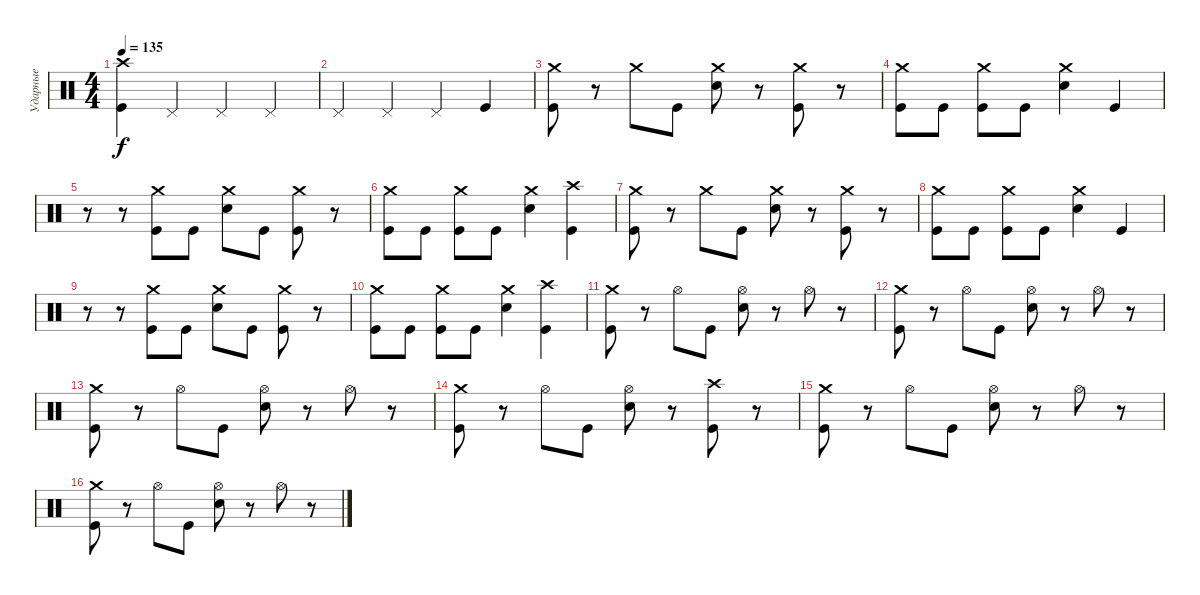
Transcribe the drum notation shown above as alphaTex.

\track ("Ударные" "Ударные") {instrument percussion}
\staff {score}
\articulation defaults
\ts (4 4)
\tempo 135
\clef neutral
\ks c
("Crash high (hit)" "Kick (hit)").4{dy f} "Pedal Hi-Hat (hit)".4 "Pedal Hi-Hat (hit)".4 "Pedal Hi-Hat (hit)".4 |
"Pedal Hi-Hat (hit)".4 "Pedal Hi-Hat (hit)".4 "Pedal Hi-Hat (hit)".4 "Kick (hit)".4 |
("Crash medium (hit)" "Kick (hit)").8 r.8 "Crash medium (hit)".8 "Kick (hit)".8 ("Crash medium (hit)" "Electric Snare (hit)").8 r.8 ("Crash medium (hit)" "Kick (hit)").8 r.8 |
("Crash medium (hit)" "Kick (hit)").8 "Kick (hit)".8 ("Crash medium (hit)" "Kick (hit)").8 "Kick (hit)".8 ("Crash medium (hit)" "Electric Snare (hit)").4 "Kick (hit)".4 |
r.8 r.8 ("Crash medium (hit)" "Kick (hit)").8 "Kick (hit)".8 ("Crash medium (hit)" "Electric Snare (hit)").8 "Kick (hit)".8 ("Crash medium (hit)" "Kick (hit)").8 r.8 |
("Crash medium (hit)" "Kick (hit)").8 "Kick (hit)".8 ("Crash medium (hit)" "Kick (hit)").8 "Kick (hit)".8 ("Crash medium (hit)" "Electric Snare (hit)").4 ("Crash high (hit)" "Kick (hit)").4 |
("Crash medium (hit)" "Kick (hit)").8 r.8 "Crash medium (hit)".8 "Kick (hit)".8 ("Crash medium (hit)" "Electric Snare (hit)").8 r.8 ("Crash medium (hit)" "Kick (hit)").8 r.8 |
("Crash medium (hit)" "Kick (hit)").8 "Kick (hit)".8 ("Crash medium (hit)" "Kick (hit)").8 "Kick (hit)".8 ("Crash medium (hit)" "Electric Snare (hit)").4 "Kick (hit)".4 |
r.8 r.8 ("Crash medium (hit)" "Kick (hit)").8 "Kick (hit)".8 ("Crash medium (hit)" "Electric Snare (hit)").8 "Kick (hit)".8 ("Crash medium (hit)" "Kick (hit)").8 r.8 |
("Crash medium (hit)" "Kick (hit)").8 "Kick (hit)".8 ("Crash medium (hit)" "Kick (hit)").8 "Kick (hit)".8 ("Crash medium (hit)" "Electric Snare (hit)").4 ("Crash high (hit)" "Kick (hit)").4 |
("Crash medium (hit)" "Kick (hit)").8 r.8 "Hi-Hat (open)".8 "Kick (hit)".8 ("Hi-Hat (open)" "Electric Snare (hit)").8 r.8 "Hi-Hat (open)".8 r.8 |
("Crash medium (hit)" "Kick (hit)").8 r.8 "Hi-Hat (open)".8 "Kick (hit)".8 ("Hi-Hat (open)" "Electric Snare (hit)").8 r.8 "Hi-Hat (open)".8 r.8 |
("Crash medium (hit)" "Kick (hit)").8 r.8 "Hi-Hat (open)".8 "Kick (hit)".8 ("Hi-Hat (open)" "Electric Snare (hit)").8 r.8 "Hi-Hat (open)".8 r.8 |
("Crash medium (hit)" "Kick (hit)").8 r.8 "Hi-Hat (open)".8 "Kick (hit)".8 ("Hi-Hat (open)" "Electric Snare (hit)").8 r.8 ("Crash high (hit)" "Kick (hit)").8 r.8 |
("Crash medium (hit)" "Kick (hit)").8 r.8 "Hi-Hat (open)".8 "Kick (hit)".8 ("Hi-Hat (open)" "Electric Snare (hit)").8 r.8 "Hi-Hat (open)".8 r.8 |
("Crash medium (hit)" "Kick (hit)").8 r.8 "Hi-Hat (open)".8 "Kick (hit)".8 ("Hi-Hat (open)" "Electric Snare (hit)").8 r.8 "Hi-Hat (open)".8 r.8
